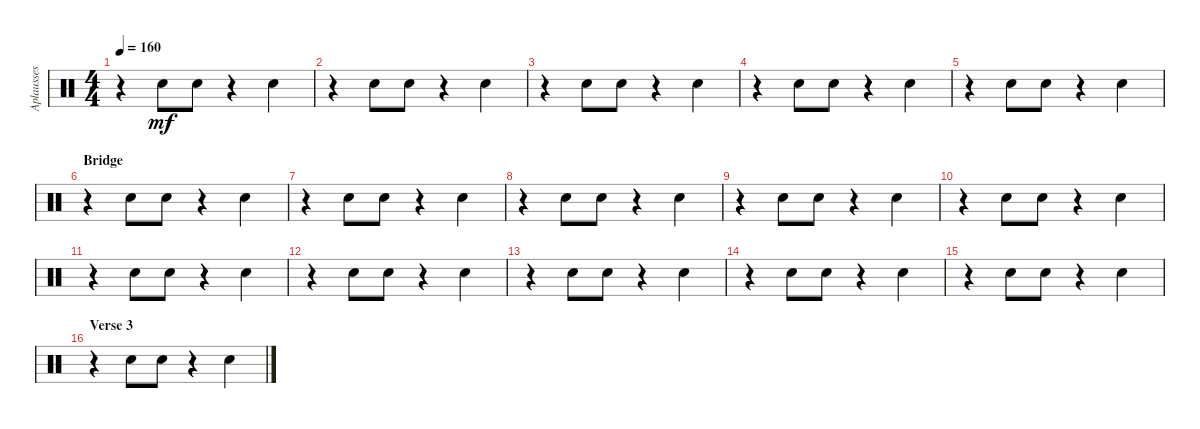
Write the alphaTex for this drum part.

\track ("Aplausses" "Aplausses") {instrument percussion}
\staff {score}
\articulation defaults
\ts (4 4)
\tempo 160
\clef neutral
\ks c
r.4{dy mf} "Hand Clap (hit)".8 "Hand Clap (hit)".8 r.4 "Hand Clap (hit)".4 |
r.4 "Hand Clap (hit)".8 "Hand Clap (hit)".8 r.4 "Hand Clap (hit)".4 |
r.4 "Hand Clap (hit)".8 "Hand Clap (hit)".8 r.4 "Hand Clap (hit)".4 |
r.4 "Hand Clap (hit)".8 "Hand Clap (hit)".8 r.4 "Hand Clap (hit)".4 |
r.4 "Hand Clap (hit)".8 "Hand Clap (hit)".8 r.4 "Hand Clap (hit)".4 |
\section ("" "Bridge")
r.4 "Hand Clap (hit)".8 "Hand Clap (hit)".8 r.4 "Hand Clap (hit)".4 |
r.4 "Hand Clap (hit)".8 "Hand Clap (hit)".8 r.4 "Hand Clap (hit)".4 |
r.4 "Hand Clap (hit)".8 "Hand Clap (hit)".8 r.4 "Hand Clap (hit)".4 |
r.4 "Hand Clap (hit)".8 "Hand Clap (hit)".8 r.4 "Hand Clap (hit)".4 |
r.4 "Hand Clap (hit)".8 "Hand Clap (hit)".8 r.4 "Hand Clap (hit)".4 |
r.4 "Hand Clap (hit)".8 "Hand Clap (hit)".8 r.4 "Hand Clap (hit)".4 |
r.4 "Hand Clap (hit)".8 "Hand Clap (hit)".8 r.4 "Hand Clap (hit)".4 |
r.4 "Hand Clap (hit)".8 "Hand Clap (hit)".8 r.4 "Hand Clap (hit)".4 |
r.4 "Hand Clap (hit)".8 "Hand Clap (hit)".8 r.4 "Hand Clap (hit)".4 |
r.4 "Hand Clap (hit)".8 "Hand Clap (hit)".8 r.4 "Hand Clap (hit)".4 |
\section ("" "Verse 3")
r.4 "Hand Clap (hit)".8 "Hand Clap (hit)".8 r.4 "Hand Clap (hit)".4
